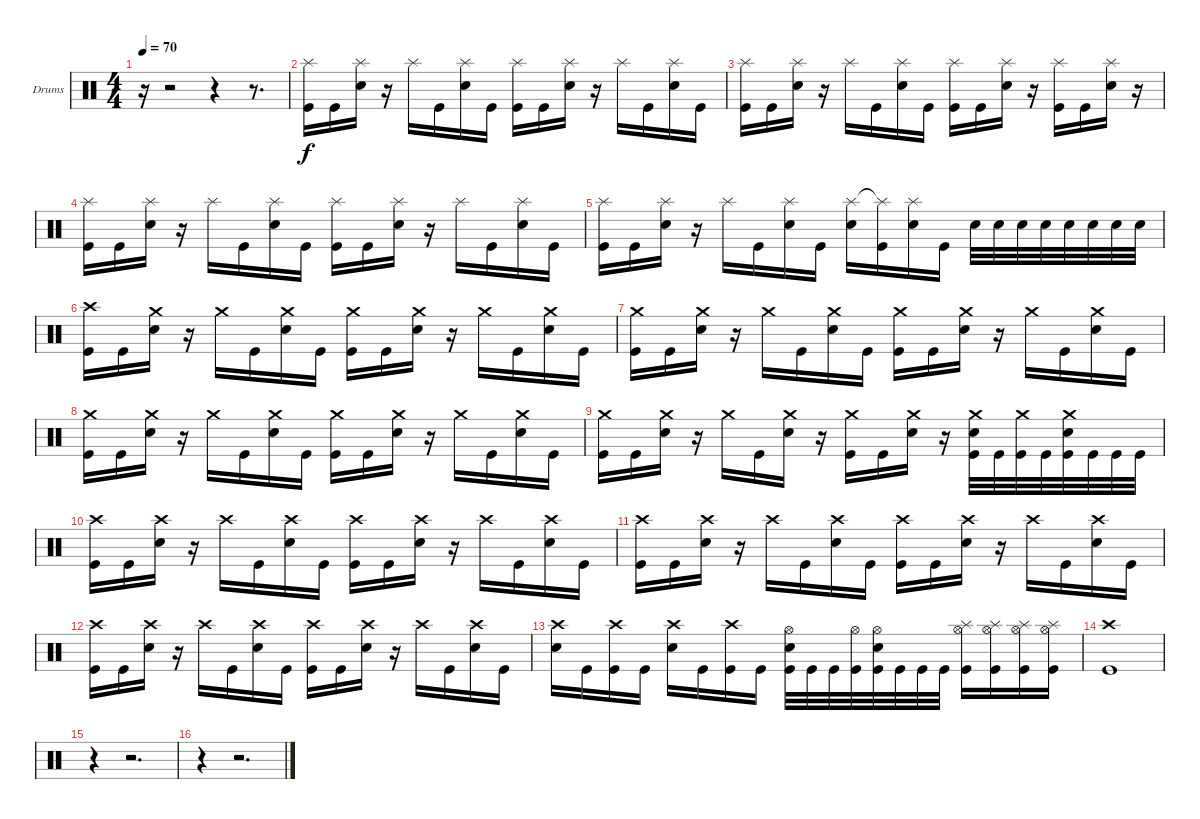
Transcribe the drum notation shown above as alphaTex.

\bracketExtendMode groupsimilarinstruments
\firstSystemTrackNameOrientation horizontal
\otherSystemsTrackNameOrientation horizontal
\track ("Drumkit" "Drums") {instrument percussion}
\staff {score}
\articulation defaults
\ts (4 4)
\tempo 70
\clef neutral
\ks c
r.16{dy f} r.2 r.4 r.8{d} |
("Splash (hit)" "Kick (hit)").16 "Kick (hit)".16 ("Splash (hit)" "Snare (hit) 2").16 r.16 "Splash (hit)".16 "Kick (hit)".16 ("Splash (hit)" "Snare (hit) 2").16 "Kick (hit)".16 ("Splash (hit)" "Kick (hit)").16 "Kick (hit)".16 ("Splash (hit)" "Snare (hit) 2").16 r.16 "Splash (hit)".16 "Kick (hit)".16 ("Splash (hit)" "Snare (hit) 2").16 "Kick (hit)".16 |
("Splash (hit)" "Kick (hit)").16 "Kick (hit)".16 ("Splash (hit)" "Snare (hit) 2").16 r.16 "Splash (hit)".16 "Kick (hit)".16 ("Splash (hit)" "Snare (hit) 2").16 "Kick (hit)".16 ("Splash (hit)" "Kick (hit)").16 "Kick (hit)".16 ("Splash (hit)" "Snare (hit) 2").16 r.16 ("Splash (hit)" "Kick (hit)").16 "Kick (hit)".16 ("Splash (hit)" "Snare (hit) 2").16 r.16 |
("Splash (hit)" "Kick (hit)").16 "Kick (hit)".16 ("Splash (hit)" "Snare (hit) 2").16 r.16 "Splash (hit)".16 "Kick (hit)".16 ("Splash (hit)" "Snare (hit) 2").16 "Kick (hit)".16 ("Splash (hit)" "Kick (hit)").16 "Kick (hit)".16 ("Splash (hit)" "Snare (hit) 2").16 r.16 "Splash (hit)".16 "Kick (hit)".16 ("Splash (hit)" "Snare (hit) 2").16 "Kick (hit)".16 |
("Splash (hit)" "Kick (hit)").16 "Kick (hit)".16 ("Splash (hit)" "Snare (hit) 2").16 r.16 "Splash (hit)".16 "Kick (hit)".16 ("Splash (hit)" "Snare (hit) 2").16 "Kick (hit)".16 ("Splash (hit)" "Snare (hit) 2").16 ("Splash (hit)"{t} "Kick (hit)").16 ("Splash (hit)" "Snare (hit) 2").16 "Kick (hit)".16 "Snare (hit) 2".32 "Snare (hit) 2".32 "Snare (hit) 2".32 "Snare (hit) 2".32 "Snare (hit) 2".32 "Snare (hit) 2".32 "Snare (hit) 2".32 "Snare (hit) 2".32 |
("Crash high (hit)" "Kick (hit)").16 "Kick (hit)".16 ("Crash medium (hit)" "Snare (hit) 2").16 r.16 "Crash medium (hit)".16 "Kick (hit)".16 ("Crash medium (hit)" "Snare (hit) 2").16 "Kick (hit)".16 ("Crash medium (hit)" "Kick (hit)").16 "Kick (hit)".16 ("Crash medium (hit)" "Snare (hit) 2").16 r.16 "Crash medium (hit)".16 "Kick (hit)".16 ("Crash medium (hit)" "Snare (hit) 2").16 "Kick (hit)".16 |
("Crash medium (hit)" "Kick (hit)").16 "Kick (hit)".16 ("Crash medium (hit)" "Snare (hit) 2").16 r.16 "Crash medium (hit)".16 "Kick (hit)".16 ("Crash medium (hit)" "Snare (hit) 2").16 "Kick (hit)".16 ("Crash medium (hit)" "Kick (hit)").16 "Kick (hit)".16 ("Crash medium (hit)" "Snare (hit) 2").16 r.16 "Crash medium (hit)".16 "Kick (hit)".16 ("Crash medium (hit)" "Snare (hit) 2").16 "Kick (hit)".16 |
("Crash medium (hit)" "Kick (hit)").16 "Kick (hit)".16 ("Crash medium (hit)" "Snare (hit) 2").16 r.16 "Crash medium (hit)".16 "Kick (hit)".16 ("Crash medium (hit)" "Snare (hit) 2").16 "Kick (hit)".16 ("Crash medium (hit)" "Kick (hit)").16 "Kick (hit)".16 ("Crash medium (hit)" "Snare (hit) 2").16 r.16 "Crash medium (hit)".16 "Kick (hit)".16 ("Crash medium (hit)" "Snare (hit) 2").16 "Kick (hit)".16 |
("Crash medium (hit)" "Kick (hit)").16 "Kick (hit)".16 ("Crash medium (hit)" "Snare (hit) 2").16 r.16 "Crash medium (hit)".16 "Kick (hit)".16 ("Crash medium (hit)" "Snare (hit) 2").16 r.16 ("Crash medium (hit)" "Kick (hit)").16 "Kick (hit)".16 ("Crash medium (hit)" "Snare (hit) 2").16 r.16 ("Crash medium (hit)" "Snare (hit) 2" "Kick (hit)").32 "Kick (hit)".32 ("Crash medium (hit)" "Kick (hit)").32 "Kick (hit)".32 ("Crash medium (hit)" "Snare (hit) 2" "Kick (hit)").32 "Kick (hit)".32 "Kick (hit)".32 "Kick (hit)".32 |
("Crash high (hit)" "Kick (hit)").16 "Kick (hit)".16 ("Crash high (hit)" "Snare (hit) 2").16 r.16 "Crash high (hit)".16 "Kick (hit)".16 ("Crash high (hit)" "Snare (hit) 2").16 "Kick (hit)".16 ("Crash high (hit)" "Kick (hit)").16 "Kick (hit)".16 ("Crash high (hit)" "Snare (hit) 2").16 r.16 "Crash high (hit)".16 "Kick (hit)".16 ("Crash high (hit)" "Snare (hit) 2").16 "Kick (hit)".16 |
("Crash high (hit)" "Kick (hit)").16 "Kick (hit)".16 ("Crash high (hit)" "Snare (hit) 2").16 r.16 "Crash high (hit)".16 "Kick (hit)".16 ("Crash high (hit)" "Snare (hit) 2").16 "Kick (hit)".16 ("Crash high (hit)" "Kick (hit)").16 "Kick (hit)".16 ("Crash high (hit)" "Snare (hit) 2").16 r.16 "Crash high (hit)".16 "Kick (hit)".16 ("Crash high (hit)" "Snare (hit) 2").16 "Kick (hit)".16 |
("Crash high (hit)" "Kick (hit)").16 "Kick (hit)".16 ("Crash high (hit)" "Snare (hit) 2").16 r.16 "Crash high (hit)".16 "Kick (hit)".16 ("Crash high (hit)" "Snare (hit) 2").16 "Kick (hit)".16 ("Crash high (hit)" "Kick (hit)").16 "Kick (hit)".16 ("Crash high (hit)" "Snare (hit) 2").16 r.16 "Crash high (hit)".16 "Kick (hit)".16 ("Crash high (hit)" "Snare (hit) 2").16 "Kick (hit)".16 |
("Crash high (hit)" "Snare (hit) 2").16 "Kick (hit)".16 ("Crash high (hit)" "Kick (hit)").16 "Kick (hit)".16 ("Crash high (hit)" "Snare (hit) 2").16 "Kick (hit)".16 ("Crash high (hit)" "Kick (hit)").16 "Kick (hit)".16 ("Hi-Hat (open)" "Snare (hit) 2" "Kick (hit)").32 "Kick (hit)".32 "Kick (hit)".32 ("Hi-Hat (open)" "Kick (hit)").32 ("Hi-Hat (open)" "Snare (hit) 2" "Kick (hit)").32 "Kick (hit)".32 "Kick (hit)".32 "Kick (hit)".32 ("Splash (hit)" "Hi-Hat (open)" "Kick (hit)").16 ("Splash (hit)" "Hi-Hat (open)" "Kick (hit)").16 ("Splash (hit)" "Hi-Hat (open)" "Kick (hit)").16 ("Splash (hit)" "Hi-Hat (open)" "Kick (hit)").16 |
("Crash high (hit)" "Kick (hit)").1 |
r.4 r.2{d} |
r.4 r.2{d}
